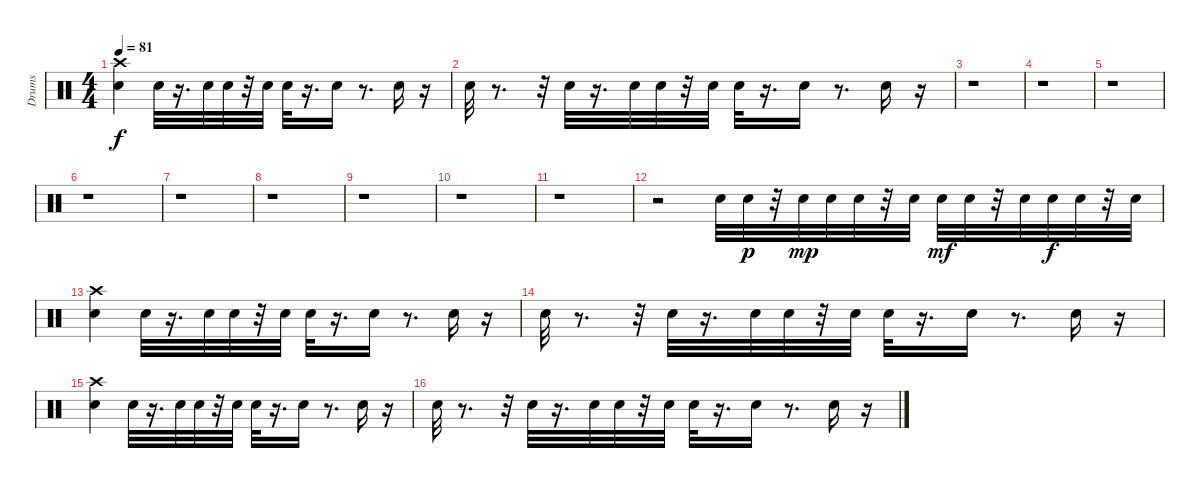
\track ("Drums" "Drums") {instrument percussion}
\staff {score}
\articulation defaults
\ts (4 4)
\tempo 81
\clef neutral
\ks c
("Crash high (hit)" "Snare (hit) 2").4{dy f} "Snare (hit) 2".32 r.16{d} "Snare (hit) 2".32 "Snare (hit) 2".32 r.32 "Snare (hit) 2".32 "Snare (hit) 2".32 r.16{d} "Snare (hit) 2".16 r.8{d} "Snare (hit) 2".16 r.16 |
"Snare (hit) 2".32 r.8{d} r.32 "Snare (hit) 2".32 r.16{d} "Snare (hit) 2".32 "Snare (hit) 2".32 r.32 "Snare (hit) 2".32 "Snare (hit) 2".32 r.16{d} "Snare (hit) 2".16 r.8{d} "Snare (hit) 2".16 r.16 |
r.1 |
r.1 |
r.1 |
r.1 |
r.1 |
r.1 |
r.1 |
r.1 |
r.1 |
r.2 "Snare (hit) 2".32 "Snare (hit) 2".32{dy p} r.32 "Snare (hit) 2".32{dy mp} "Snare (hit) 2".32 "Snare (hit) 2".32 r.32 "Snare (hit) 2".32 "Snare (hit) 2".32{dy mf} "Snare (hit) 2".32 r.32 "Snare (hit) 2".32 "Snare (hit) 2".32{dy f} "Snare (hit) 2".32 r.32 "Snare (hit) 2".32 |
("Crash high (hit)" "Snare (hit) 2").4 "Snare (hit) 2".32 r.16{d} "Snare (hit) 2".32 "Snare (hit) 2".32 r.32 "Snare (hit) 2".32 "Snare (hit) 2".32 r.16{d} "Snare (hit) 2".16 r.8{d} "Snare (hit) 2".16 r.16 |
"Snare (hit) 2".32 r.8{d} r.32 "Snare (hit) 2".32 r.16{d} "Snare (hit) 2".32 "Snare (hit) 2".32 r.32 "Snare (hit) 2".32 "Snare (hit) 2".32 r.16{d} "Snare (hit) 2".16 r.8{d} "Snare (hit) 2".16 r.16 |
("Crash high (hit)" "Snare (hit) 2").4 "Snare (hit) 2".32 r.16{d} "Snare (hit) 2".32 "Snare (hit) 2".32 r.32 "Snare (hit) 2".32 "Snare (hit) 2".32 r.16{d} "Snare (hit) 2".16 r.8{d} "Snare (hit) 2".16 r.16 |
"Snare (hit) 2".32 r.8{d} r.32 "Snare (hit) 2".32 r.16{d} "Snare (hit) 2".32 "Snare (hit) 2".32 r.32 "Snare (hit) 2".32 "Snare (hit) 2".32 r.16{d} "Snare (hit) 2".16 r.8{d} "Snare (hit) 2".16 r.16
